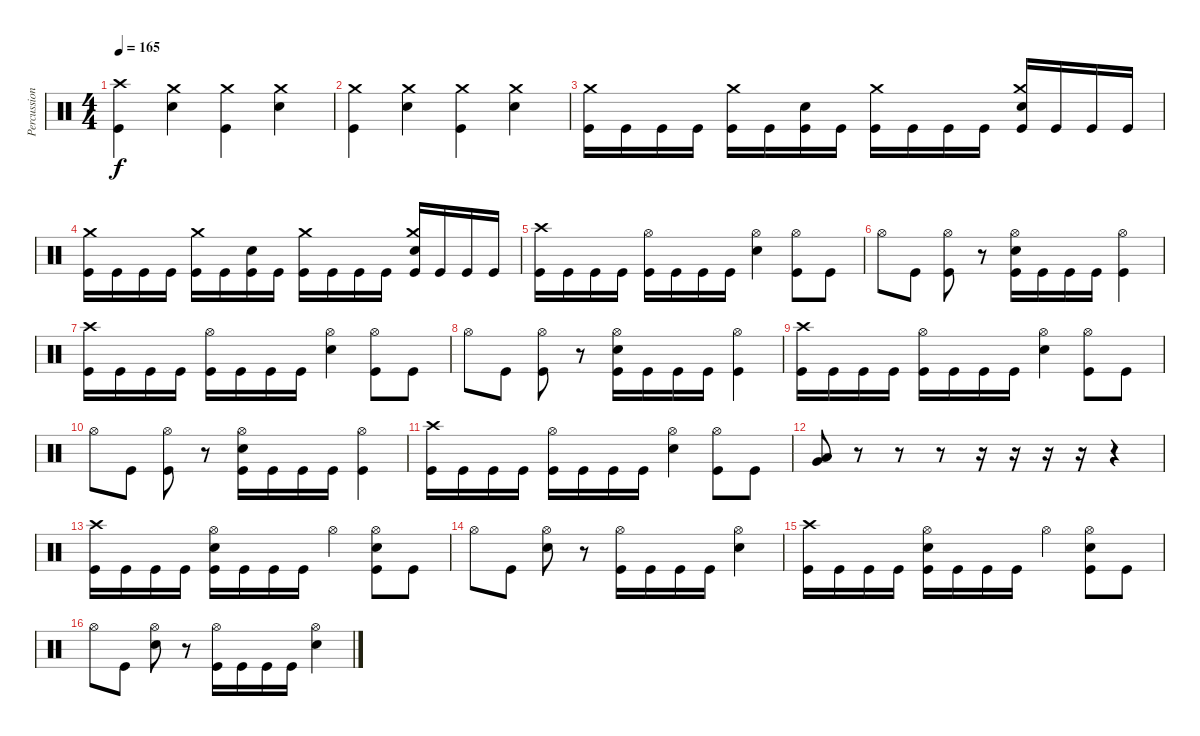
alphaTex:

\track ("Percussion" "Percussion") {instrument percussion}
\staff {score}
\articulation defaults
\ts (4 4)
\tempo 165
\clef neutral
\ks c
("Crash high (hit)" "Kick (hit)").4{dy f} ("Crash medium (hit)" "Electric Snare (hit)").4 ("Crash medium (hit)" "Kick (hit)").4 ("Crash medium (hit)" "Electric Snare (hit)").4 |
("Crash medium (hit)" "Kick (hit)").4 ("Crash medium (hit)" "Electric Snare (hit)").4 ("Crash medium (hit)" "Kick (hit)").4 ("Crash medium (hit)" "Electric Snare (hit)").4 |
("Crash medium (hit)" "Kick (hit)").16 "Kick (hit)".16 "Kick (hit)".16 "Kick (hit)".16 ("Crash medium (hit)" "Kick (hit)").16 "Kick (hit)".16 ("Electric Snare (hit)" "Kick (hit)").16 "Kick (hit)".16 ("Crash medium (hit)" "Kick (hit)").16 "Kick (hit)".16 "Kick (hit)".16 "Kick (hit)".16 ("Crash medium (hit)" "Electric Snare (hit)" "Kick (hit)").16 "Kick (hit)".16 "Kick (hit)".16 "Kick (hit)".16 |
("Crash medium (hit)" "Kick (hit)").16 "Kick (hit)".16 "Kick (hit)".16 "Kick (hit)".16 ("Crash medium (hit)" "Kick (hit)").16 "Kick (hit)".16 ("Electric Snare (hit)" "Kick (hit)").16 "Kick (hit)".16 ("Crash medium (hit)" "Kick (hit)").16 "Kick (hit)".16 "Kick (hit)".16 "Kick (hit)".16 ("Crash medium (hit)" "Electric Snare (hit)" "Kick (hit)").16 "Kick (hit)".16 "Kick (hit)".16 "Kick (hit)".16 |
("Crash high (hit)" "Kick (hit)").16 "Kick (hit)".16 "Kick (hit)".16 "Kick (hit)".16 ("Hi-Hat (open)" "Kick (hit)").16 "Kick (hit)".16 "Kick (hit)".16 "Kick (hit)".16 ("Hi-Hat (open)" "Electric Snare (hit)").4 ("Hi-Hat (open)" "Kick (hit)").8 "Kick (hit)".8 |
"Hi-Hat (open)".8 "Kick (hit)".8 ("Hi-Hat (open)" "Kick (hit)").8 r.8 ("Hi-Hat (open)" "Electric Snare (hit)" "Kick (hit)").16 "Kick (hit)".16 "Kick (hit)".16 "Kick (hit)".16 ("Hi-Hat (open)" "Kick (hit)").4 |
("Crash high (hit)" "Kick (hit)").16 "Kick (hit)".16 "Kick (hit)".16 "Kick (hit)".16 ("Hi-Hat (open)" "Kick (hit)").16 "Kick (hit)".16 "Kick (hit)".16 "Kick (hit)".16 ("Hi-Hat (open)" "Electric Snare (hit)").4 ("Hi-Hat (open)" "Kick (hit)").8 "Kick (hit)".8 |
"Hi-Hat (open)".8 "Kick (hit)".8 ("Hi-Hat (open)" "Kick (hit)").8 r.8 ("Hi-Hat (open)" "Electric Snare (hit)" "Kick (hit)").16 "Kick (hit)".16 "Kick (hit)".16 "Kick (hit)".16 ("Hi-Hat (open)" "Kick (hit)").4 |
("Crash high (hit)" "Kick (hit)").16 "Kick (hit)".16 "Kick (hit)".16 "Kick (hit)".16 ("Hi-Hat (open)" "Kick (hit)").16 "Kick (hit)".16 "Kick (hit)".16 "Kick (hit)".16 ("Hi-Hat (open)" "Electric Snare (hit)").4 ("Hi-Hat (open)" "Kick (hit)").8 "Kick (hit)".8 |
"Hi-Hat (open)".8 "Kick (hit)".8 ("Hi-Hat (open)" "Kick (hit)").8 r.8 ("Hi-Hat (open)" "Electric Snare (hit)" "Kick (hit)").16 "Kick (hit)".16 "Kick (hit)".16 "Kick (hit)".16 ("Hi-Hat (open)" "Kick (hit)").4 |
("Crash high (hit)" "Kick (hit)").16 "Kick (hit)".16 "Kick (hit)".16 "Kick (hit)".16 ("Hi-Hat (open)" "Kick (hit)").16 "Kick (hit)".16 "Kick (hit)".16 "Kick (hit)".16 ("Hi-Hat (open)" "Electric Snare (hit)").4 ("Hi-Hat (open)" "Kick (hit)").8 "Kick (hit)".8 |
("Low Tom (hit)" "Very Low Tom (hit)").8 r.8 r.8 r.8 r.16 r.16 r.16 r.16 r.4 |
("Crash high (hit)" "Kick (hit)").16 "Kick (hit)".16 "Kick (hit)".16 "Kick (hit)".16 ("Hi-Hat (open)" "Electric Snare (hit)" "Kick (hit)").16 "Kick (hit)".16 "Kick (hit)".16 "Kick (hit)".16 "Hi-Hat (open)".4 ("Hi-Hat (open)" "Electric Snare (hit)" "Kick (hit)").8 "Kick (hit)".8 |
"Hi-Hat (open)".8 "Kick (hit)".8 ("Hi-Hat (open)" "Electric Snare (hit)").8 r.8 ("Hi-Hat (open)" "Kick (hit)").16 "Kick (hit)".16 "Kick (hit)".16 "Kick (hit)".16 ("Hi-Hat (open)" "Electric Snare (hit)").4 |
("Crash high (hit)" "Kick (hit)").16 "Kick (hit)".16 "Kick (hit)".16 "Kick (hit)".16 ("Hi-Hat (open)" "Electric Snare (hit)" "Kick (hit)").16 "Kick (hit)".16 "Kick (hit)".16 "Kick (hit)".16 "Hi-Hat (open)".4 ("Hi-Hat (open)" "Electric Snare (hit)" "Kick (hit)").8 "Kick (hit)".8 |
"Hi-Hat (open)".8 "Kick (hit)".8 ("Hi-Hat (open)" "Electric Snare (hit)").8 r.8 ("Hi-Hat (open)" "Kick (hit)").16 "Kick (hit)".16 "Kick (hit)".16 "Kick (hit)".16 ("Hi-Hat (open)" "Electric Snare (hit)").4
